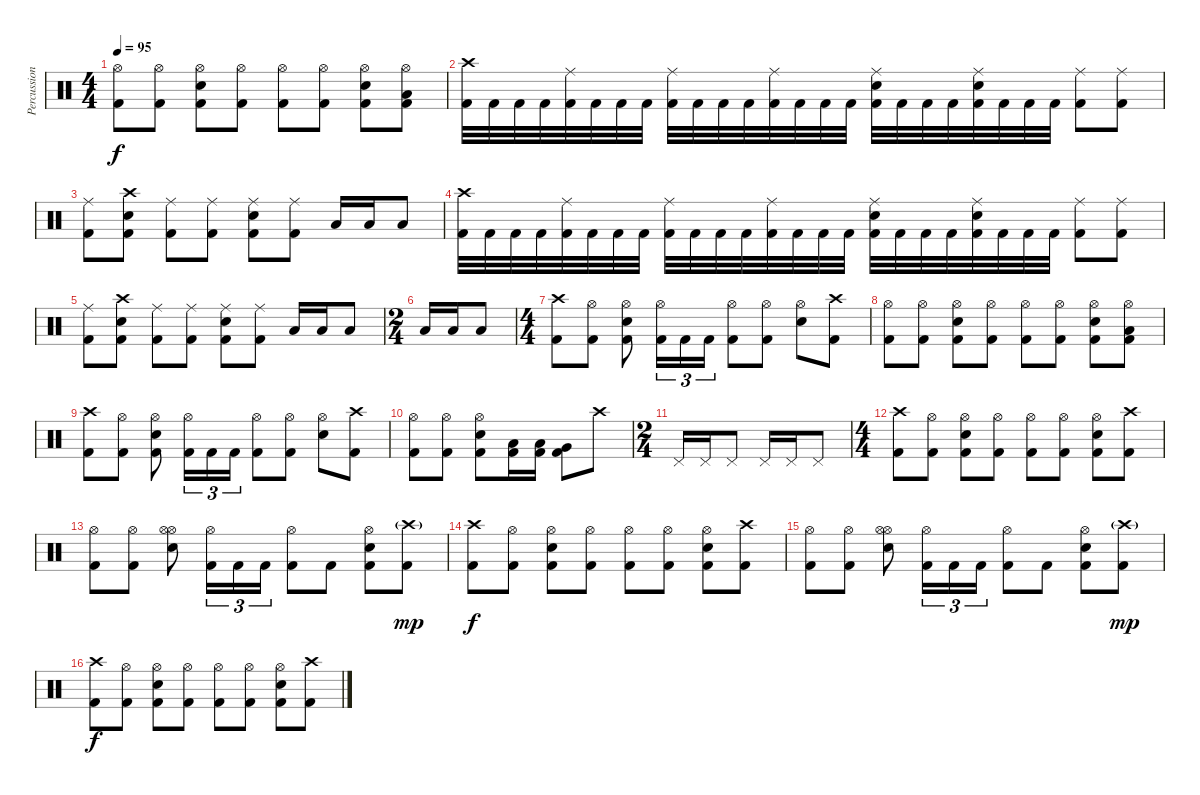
\track ("Percussion" "Percussion") {instrument percussion}
\staff {score}
\articulation defaults
\ts (4 4)
\tempo 95
\clef neutral
\ks c
("Hi-Hat (open)" "Kick (hit) 2").8{dy f} ("Hi-Hat (open)" "Kick (hit) 2").8 ("Hi-Hat (open)" "Snare (hit) 2" "Kick (hit) 2").8 ("Hi-Hat (open)" "Kick (hit) 2").8 ("Hi-Hat (open)" "Kick (hit) 2").8 ("Hi-Hat (open)" "Kick (hit) 2").8 ("Hi-Hat (open)" "Snare (hit) 2" "Kick (hit) 2").8 ("Hi-Hat (open)" "Low Tom (hit)" "Kick (hit) 2").8 |
("Crash high (hit)" "Kick (hit) 2").32 "Kick (hit) 2".32 "Kick (hit) 2".32 "Kick (hit) 2".32 ("Ride (middle)" "Kick (hit) 2").32 "Kick (hit) 2".32 "Kick (hit) 2".32 "Kick (hit) 2".32 ("Ride (middle)" "Kick (hit) 2").32 "Kick (hit) 2".32 "Kick (hit) 2".32 "Kick (hit) 2".32 ("Ride (middle)" "Kick (hit) 2").32 "Kick (hit) 2".32 "Kick (hit) 2".32 "Kick (hit) 2".32 ("Ride (middle)" "Snare (hit) 2" "Kick (hit) 2").32 "Kick (hit) 2".32 "Kick (hit) 2".32 "Kick (hit) 2".32 ("Ride (middle)" "Snare (hit) 2" "Kick (hit) 2").32 "Kick (hit) 2".32 "Kick (hit) 2".32 "Kick (hit) 2".32 ("Ride (middle)" "Kick (hit) 2").8 ("Ride (middle)" "Kick (hit) 2").8 |
("Ride (middle)" "Kick (hit) 2").8 ("Crash high (hit)" "Snare (hit) 2" "Kick (hit) 2").8 ("Ride (middle)" "Kick (hit) 2").8 ("Ride (middle)" "Kick (hit) 2").8 ("Ride (middle)" "Snare (hit) 2" "Kick (hit) 2").8 ("Ride (middle)" "Kick (hit) 2").8 "Low Tom (hit)".16 "Low Tom (hit)".16 "Low Tom (hit)".8 |
("Crash high (hit)" "Kick (hit) 2").32 "Kick (hit) 2".32 "Kick (hit) 2".32 "Kick (hit) 2".32 ("Ride (middle)" "Kick (hit) 2").32 "Kick (hit) 2".32 "Kick (hit) 2".32 "Kick (hit) 2".32 ("Ride (middle)" "Kick (hit) 2").32 "Kick (hit) 2".32 "Kick (hit) 2".32 "Kick (hit) 2".32 ("Ride (middle)" "Kick (hit) 2").32 "Kick (hit) 2".32 "Kick (hit) 2".32 "Kick (hit) 2".32 ("Ride (middle)" "Snare (hit) 2" "Kick (hit) 2").32 "Kick (hit) 2".32 "Kick (hit) 2".32 "Kick (hit) 2".32 ("Ride (middle)" "Snare (hit) 2" "Kick (hit) 2").32 "Kick (hit) 2".32 "Kick (hit) 2".32 "Kick (hit) 2".32 ("Ride (middle)" "Kick (hit) 2").8 ("Ride (middle)" "Kick (hit) 2").8 |
("Ride (middle)" "Kick (hit) 2").8 ("Crash high (hit)" "Snare (hit) 2" "Kick (hit) 2").8 ("Ride (middle)" "Kick (hit) 2").8 ("Ride (middle)" "Kick (hit) 2").8 ("Ride (middle)" "Snare (hit) 2" "Kick (hit) 2").8 ("Ride (middle)" "Kick (hit) 2").8 "Low Tom (hit)".16 "Low Tom (hit)".16 "Low Tom (hit)".8 |
\ts (2 4)
"Low Tom (hit)".16 "Low Tom (hit)".16 "Low Tom (hit)".8 |
\ts (4 4)
("Crash high (hit)" "Kick (hit) 2").8 ("Hi-Hat (open)" "Kick (hit) 2").8 ("Hi-Hat (open)" "Snare (hit) 2" "Kick (hit) 2").8 ("Hi-Hat (open)" "Kick (hit) 2").16{tu (3 2)} "Kick (hit) 2".16{tu (3 2)} "Kick (hit) 2".16{tu (3 2)} ("Hi-Hat (open)" "Kick (hit) 2").8 ("Hi-Hat (open)" "Kick (hit) 2").8 ("Hi-Hat (open)" "Snare (hit) 2").8 ("Crash high (hit)" "Kick (hit) 2").8 |
("Hi-Hat (open)" "Kick (hit) 2").8 ("Hi-Hat (open)" "Kick (hit) 2").8 ("Hi-Hat (open)" "Snare (hit) 2" "Kick (hit) 2").8 ("Hi-Hat (open)" "Kick (hit) 2").8 ("Hi-Hat (open)" "Kick (hit) 2").8 ("Hi-Hat (open)" "Kick (hit) 2").8 ("Hi-Hat (open)" "Snare (hit) 2" "Kick (hit) 2").8 ("Hi-Hat (open)" "Low Tom (hit)" "Kick (hit) 2").8 |
("Crash high (hit)" "Kick (hit) 2").8 ("Hi-Hat (open)" "Kick (hit) 2").8 ("Hi-Hat (open)" "Snare (hit) 2" "Kick (hit) 2").8 ("Hi-Hat (open)" "Kick (hit) 2").16{tu (3 2)} "Kick (hit) 2".16{tu (3 2)} "Kick (hit) 2".16{tu (3 2)} ("Hi-Hat (open)" "Kick (hit) 2").8 ("Hi-Hat (open)" "Kick (hit) 2").8 ("Hi-Hat (open)" "Snare (hit) 2").8 ("Crash high (hit)" "Kick (hit) 2").8 |
("Hi-Hat (open)" "Kick (hit) 2").8 ("Hi-Hat (open)" "Kick (hit) 2").8 ("Hi-Hat (open)" "Snare (hit) 2" "Kick (hit) 2").8 ("Low Tom (hit)" "Kick (hit) 2").16 ("Low Tom (hit)" "Kick (hit) 2").16 ("Very Low Tom (hit)" "Kick (hit) 2").8 "Crash high (hit)".8 |
\ts (2 4)
"Pedal Hi-Hat (hit)".16 "Pedal Hi-Hat (hit)".16 "Pedal Hi-Hat (hit)".8 "Pedal Hi-Hat (hit)".16 "Pedal Hi-Hat (hit)".16 "Pedal Hi-Hat (hit)".8 |
\ts (4 4)
("Crash high (hit)" "Kick (hit) 2").8 ("Hi-Hat (open)" "Kick (hit) 2").8 ("Hi-Hat (open)" "Snare (hit) 2" "Kick (hit) 2").8 ("Hi-Hat (open)" "Kick (hit) 2").8 ("Hi-Hat (open)" "Kick (hit) 2").8 ("Hi-Hat (open)" "Kick (hit) 2").8 ("Hi-Hat (open)" "Snare (hit) 2" "Kick (hit) 2").8 ("Crash high (hit)" "Kick (hit) 2").8 |
("Hi-Hat (open)" "Kick (hit) 2").8 ("Hi-Hat (open)" "Kick (hit) 2").8 ("Hi-Hat (open)" "Snare (hit) 2" "Hi-Hat (open)").8 ("Hi-Hat (open)" "Kick (hit) 2").16{tu (3 2)} "Kick (hit) 2".16{tu (3 2)} "Kick (hit) 2".16{tu (3 2)} ("Hi-Hat (open)" "Kick (hit) 2").8 "Kick (hit) 2".8 ("Hi-Hat (open)" "Snare (hit) 2" "Kick (hit) 2").8 ("Crash high (hit)"{g} "Kick (hit) 2").8{dy mp} |
("Crash high (hit)" "Kick (hit) 2").8{dy f} ("Hi-Hat (open)" "Kick (hit) 2").8 ("Hi-Hat (open)" "Snare (hit) 2" "Kick (hit) 2").8 ("Hi-Hat (open)" "Kick (hit) 2").8 ("Hi-Hat (open)" "Kick (hit) 2").8 ("Hi-Hat (open)" "Kick (hit) 2").8 ("Hi-Hat (open)" "Snare (hit) 2" "Kick (hit) 2").8 ("Crash high (hit)" "Kick (hit) 2").8 |
("Hi-Hat (open)" "Kick (hit) 2").8 ("Hi-Hat (open)" "Kick (hit) 2").8 ("Hi-Hat (open)" "Snare (hit) 2" "Hi-Hat (open)").8 ("Hi-Hat (open)" "Kick (hit) 2").16{tu (3 2)} "Kick (hit) 2".16{tu (3 2)} "Kick (hit) 2".16{tu (3 2)} ("Hi-Hat (open)" "Kick (hit) 2").8 "Kick (hit) 2".8 ("Hi-Hat (open)" "Snare (hit) 2" "Kick (hit) 2").8 ("Crash high (hit)"{g} "Kick (hit) 2").8{dy mp} |
("Crash high (hit)" "Kick (hit) 2").8{dy f} ("Hi-Hat (open)" "Kick (hit) 2").8 ("Hi-Hat (open)" "Snare (hit) 2" "Kick (hit) 2").8 ("Hi-Hat (open)" "Kick (hit) 2").8 ("Hi-Hat (open)" "Kick (hit) 2").8 ("Hi-Hat (open)" "Kick (hit) 2").8 ("Hi-Hat (open)" "Snare (hit) 2" "Kick (hit) 2").8 ("Crash high (hit)" "Kick (hit) 2").8
